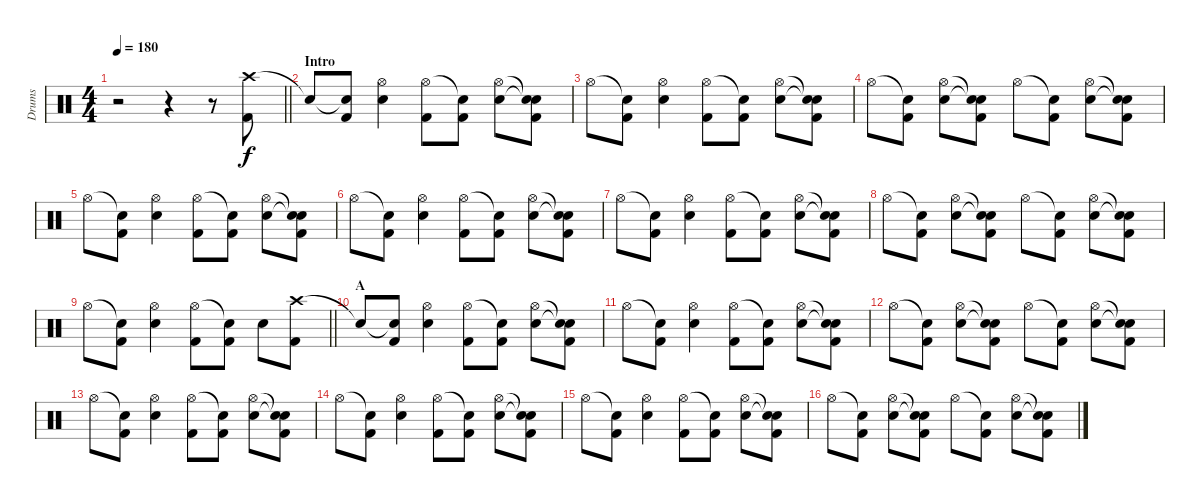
\track ("Drums" "Drums") {instrument percussion}
\staff {score}
\articulation defaults
\ts (4 4)
\tempo 180
\clef neutral
\barLineRight lightlight
\ks c
r.2{dy f} r.4 r.8 ("Crash high (hit)" "Kick (hit) 2").8 |
\section ("" "Intro")
"Snare (hit)"{t}.8 ("Snare (hit)"{t} "Kick (hit) 2").8 ("Hi-Hat (open)" "Snare (hit) 2").4 ("Hi-Hat (open)" "Kick (hit) 2").8 ("Snare (hit)"{t} "Kick (hit) 2").8 ("Hi-Hat (open)" "Snare (hit) 2").8 ("Snare (hit)"{t} "Snare (hit)"{t} "Kick (hit) 2").8 |
"Hi-Hat (open)".8 ("Snare (hit)"{t} "Kick (hit) 2").8 ("Hi-Hat (open)" "Snare (hit) 2").4 ("Hi-Hat (open)" "Kick (hit) 2").8 ("Snare (hit)"{t} "Kick (hit) 2").8 ("Hi-Hat (open)" "Snare (hit) 2").8 ("Snare (hit)"{t} "Snare (hit)"{t} "Kick (hit) 2").8 |
"Hi-Hat (open)".8 ("Snare (hit)"{t} "Kick (hit) 2").8 ("Hi-Hat (open)" "Snare (hit) 2").8 ("Snare (hit)"{t} "Snare (hit)"{t} "Kick (hit) 2").8 "Hi-Hat (open)".8 ("Snare (hit)"{t} "Kick (hit) 2").8 ("Hi-Hat (open)" "Snare (hit) 2").8 ("Snare (hit)"{t} "Snare (hit)"{t} "Kick (hit) 2").8 |
"Hi-Hat (open)".8 ("Snare (hit)"{t} "Kick (hit) 2").8 ("Hi-Hat (open)" "Snare (hit) 2").4 ("Hi-Hat (open)" "Kick (hit) 2").8 ("Snare (hit)"{t} "Kick (hit) 2").8 ("Hi-Hat (open)" "Snare (hit) 2").8 ("Snare (hit)"{t} "Snare (hit)"{t} "Kick (hit) 2").8 |
"Hi-Hat (open)".8 ("Snare (hit)"{t} "Kick (hit) 2").8 ("Hi-Hat (open)" "Snare (hit) 2").4 ("Hi-Hat (open)" "Kick (hit) 2").8 ("Snare (hit)"{t} "Kick (hit) 2").8 ("Hi-Hat (open)" "Snare (hit) 2").8 ("Snare (hit)"{t} "Snare (hit)"{t} "Kick (hit) 2").8 |
"Hi-Hat (open)".8 ("Snare (hit)"{t} "Kick (hit) 2").8 ("Hi-Hat (open)" "Snare (hit) 2").4 ("Hi-Hat (open)" "Kick (hit) 2").8 ("Snare (hit)"{t} "Kick (hit) 2").8 ("Hi-Hat (open)" "Snare (hit) 2").8 ("Snare (hit)"{t} "Snare (hit)"{t} "Kick (hit) 2").8 |
"Hi-Hat (open)".8 ("Snare (hit)"{t} "Kick (hit) 2").8 ("Hi-Hat (open)" "Snare (hit) 2").8 ("Snare (hit)"{t} "Snare (hit)"{t} "Kick (hit) 2").8 "Hi-Hat (open)".8 ("Snare (hit)"{t} "Kick (hit) 2").8 ("Hi-Hat (open)" "Snare (hit) 2").8 ("Snare (hit)"{t} "Snare (hit)"{t} "Kick (hit) 2").8 |
\barLineRight lightlight "Hi-Hat (open)".8
("Snare (hit)"{t} "Kick (hit) 2").8 ("Hi-Hat (open)" "Snare (hit) 2").4 ("Hi-Hat (open)" "Kick (hit) 2").8 ("Snare (hit)"{t} "Kick (hit) 2").8 "Snare (hit) 2".8 ("Crash high (hit)" "Kick (hit) 2").8 |
\section ("" "A")
"Snare (hit)"{t}.8 ("Snare (hit)"{t} "Kick (hit) 2").8 ("Hi-Hat (open)" "Snare (hit) 2").4 ("Hi-Hat (open)" "Kick (hit) 2").8 ("Snare (hit)"{t} "Kick (hit) 2").8 ("Hi-Hat (open)" "Snare (hit) 2").8 ("Snare (hit)"{t} "Snare (hit)"{t} "Kick (hit) 2").8 |
"Hi-Hat (open)".8 ("Snare (hit)"{t} "Kick (hit) 2").8 ("Hi-Hat (open)" "Snare (hit) 2").4 ("Hi-Hat (open)" "Kick (hit) 2").8 ("Snare (hit)"{t} "Kick (hit) 2").8 ("Hi-Hat (open)" "Snare (hit) 2").8 ("Snare (hit)"{t} "Snare (hit)"{t} "Kick (hit) 2").8 |
"Hi-Hat (open)".8 ("Snare (hit)"{t} "Kick (hit) 2").8 ("Hi-Hat (open)" "Snare (hit) 2").8 ("Snare (hit)"{t} "Snare (hit)"{t} "Kick (hit) 2").8 "Hi-Hat (open)".8 ("Snare (hit)"{t} "Kick (hit) 2").8 ("Hi-Hat (open)" "Snare (hit) 2").8 ("Snare (hit)"{t} "Snare (hit)"{t} "Kick (hit) 2").8 |
"Hi-Hat (open)".8 ("Snare (hit)"{t} "Kick (hit) 2").8 ("Hi-Hat (open)" "Snare (hit) 2").4 ("Hi-Hat (open)" "Kick (hit) 2").8 ("Snare (hit)"{t} "Kick (hit) 2").8 ("Hi-Hat (open)" "Snare (hit) 2").8 ("Snare (hit)"{t} "Snare (hit)"{t} "Kick (hit) 2").8 |
"Hi-Hat (open)".8 ("Snare (hit)"{t} "Kick (hit) 2").8 ("Hi-Hat (open)" "Snare (hit) 2").4 ("Hi-Hat (open)" "Kick (hit) 2").8 ("Snare (hit)"{t} "Kick (hit) 2").8 ("Hi-Hat (open)" "Snare (hit) 2").8 ("Snare (hit)"{t} "Snare (hit)"{t} "Kick (hit) 2").8 |
"Hi-Hat (open)".8 ("Snare (hit)"{t} "Kick (hit) 2").8 ("Hi-Hat (open)" "Snare (hit) 2").4 ("Hi-Hat (open)" "Kick (hit) 2").8 ("Snare (hit)"{t} "Kick (hit) 2").8 ("Hi-Hat (open)" "Snare (hit) 2").8 ("Snare (hit)"{t} "Snare (hit)"{t} "Kick (hit) 2").8 |
"Hi-Hat (open)".8 ("Snare (hit)"{t} "Kick (hit) 2").8 ("Hi-Hat (open)" "Snare (hit) 2").8 ("Snare (hit)"{t} "Snare (hit)"{t} "Kick (hit) 2").8 "Hi-Hat (open)".8 ("Snare (hit)"{t} "Kick (hit) 2").8 ("Hi-Hat (open)" "Snare (hit) 2").8 ("Snare (hit)"{t} "Snare (hit)"{t} "Kick (hit) 2").8
